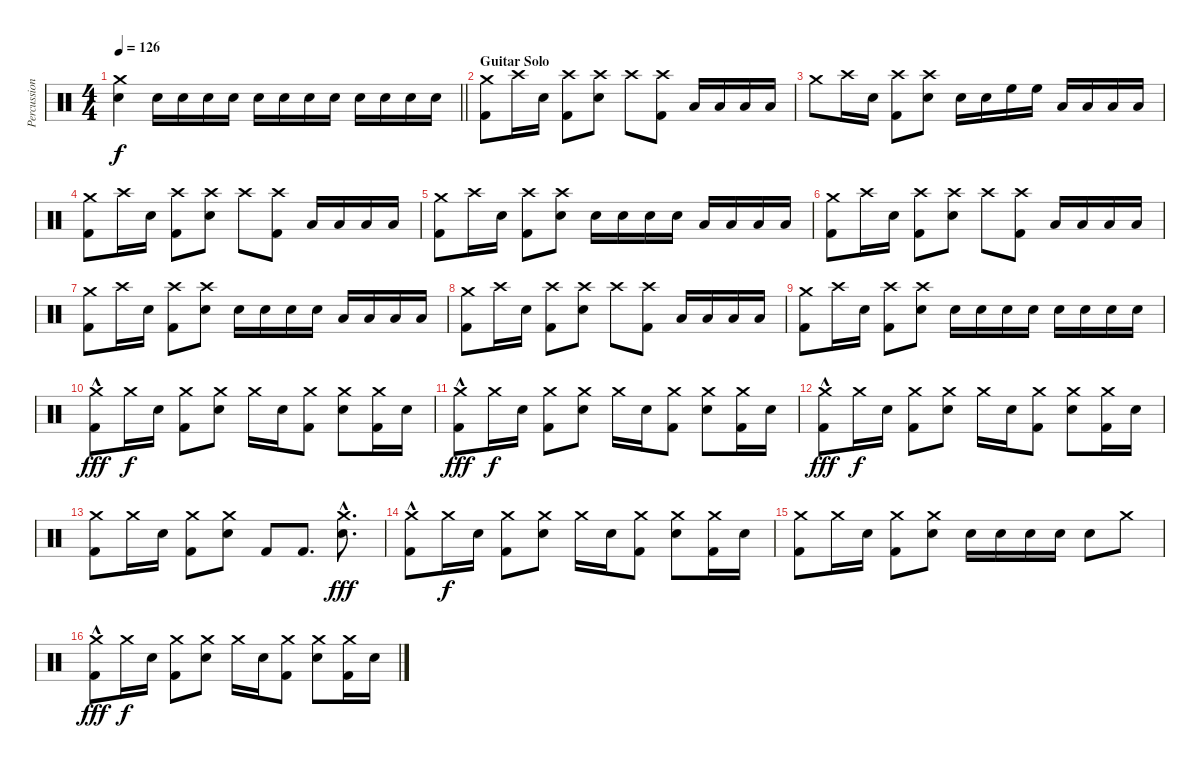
\track ("Percussion" "Percussion") {instrument percussion}
\staff {score}
\articulation defaults
\ts (4 4)
\tempo 126
\clef neutral
\barLineRight lightlight
\ks c
("Crash medium (hit)" "Snare (hit) 2").4{dy f} "Snare (hit) 2".16 "Snare (hit) 2".16 "Snare (hit) 2".16 "Snare (hit) 2".16 "Snare (hit) 2".16 "Snare (hit) 2".16 "Snare (hit) 2".16 "Snare (hit) 2".16 "Snare (hit) 2".16 "Snare (hit) 2".16 "Snare (hit) 2".16 "Snare (hit) 2".16 |
\section ("" "Guitar Solo")
("Crash medium (hit)" "Kick (hit) 2").8 "Crash high (hit)".16 "Snare (hit) 2".16 ("Crash high (hit)" "Kick (hit) 2").8 ("Crash high (hit)" "Snare (hit) 2").8 "Crash high (hit)".8 ("Crash high (hit)" "Kick (hit) 2").8 "Low Tom (hit)".16 "Low Tom (hit)".16 "Low Floor Tom (hit)".16 "Low Floor Tom (hit)".16 |
"Crash medium (hit)".8 "Crash high (hit)".16 "Snare (hit) 2".16 ("Crash high (hit)" "Kick (hit) 2").8 ("Crash high (hit)" "Snare (hit) 2").8 "Snare (hit) 2".16 "Snare (hit) 2".16 "High Floor Tom (hit)".16 "High Floor Tom (hit)".16 "Low Tom (hit)".16 "Low Tom (hit)".16 "Low Floor Tom (hit)".16 "Low Floor Tom (hit)".16 |
("Crash medium (hit)" "Kick (hit) 2").8 "Crash high (hit)".16 "Snare (hit) 2".16 ("Crash high (hit)" "Kick (hit) 2").8 ("Crash high (hit)" "Snare (hit) 2").8 "Crash high (hit)".8 ("Crash high (hit)" "Kick (hit) 2").8 "Low Tom (hit)".16 "Low Tom (hit)".16 "Low Floor Tom (hit)".16 "Low Floor Tom (hit)".16 |
("Crash medium (hit)" "Kick (hit) 2").8 "Crash high (hit)".16 "Snare (hit) 2".16 ("Crash high (hit)" "Kick (hit) 2").8 ("Crash high (hit)" "Snare (hit) 2").8 "Snare (hit) 2".16 "Snare (hit) 2".16 "Snare (hit) 2".16 "Snare (hit) 2".16 "Low Tom (hit)".16 "Low Tom (hit)".16 "Low Floor Tom (hit)".16 "Low Floor Tom (hit)".16 |
("Crash medium (hit)" "Kick (hit) 2").8 "Crash high (hit)".16 "Snare (hit) 2".16 ("Crash high (hit)" "Kick (hit) 2").8 ("Crash high (hit)" "Snare (hit) 2").8 "Crash high (hit)".8 ("Crash high (hit)" "Kick (hit) 2").8 "Low Tom (hit)".16 "Low Tom (hit)".16 "Low Floor Tom (hit)".16 "Low Floor Tom (hit)".16 |
("Crash medium (hit)" "Kick (hit) 2").8 "Crash high (hit)".16 "Snare (hit) 2".16 ("Crash high (hit)" "Kick (hit) 2").8 ("Crash high (hit)" "Snare (hit) 2").8 "Snare (hit) 2".16 "Snare (hit) 2".16 "Snare (hit) 2".16 "Snare (hit) 2".16 "Low Tom (hit)".16 "Low Tom (hit)".16 "Low Floor Tom (hit)".16 "Low Floor Tom (hit)".16 |
("Crash medium (hit)" "Kick (hit) 2").8 "Crash high (hit)".16 "Snare (hit) 2".16 ("Crash high (hit)" "Kick (hit) 2").8 ("Crash high (hit)" "Snare (hit) 2").8 "Crash high (hit)".8 ("Crash high (hit)" "Kick (hit) 2").8 "Low Tom (hit)".16 "Low Tom (hit)".16 "Low Floor Tom (hit)".16 "Low Floor Tom (hit)".16 |
("Crash medium (hit)" "Kick (hit) 2").8 "Crash high (hit)".16 "Snare (hit) 2".16 ("Crash high (hit)" "Kick (hit) 2").8 ("Crash high (hit)" "Snare (hit) 2").8 "Snare (hit) 2".16 "Snare (hit) 2".16 "Snare (hit) 2".16 "Snare (hit) 2".16 "Snare (hit) 2".16 "Snare (hit) 2".16 "Snare (hit) 2".16 "Snare (hit) 2".16 |
("Crash medium (hit)"{hac} "Kick (hit) 2").8{dy fff} "Crash medium (hit)".16{dy f} "Snare (hit) 2".16 ("Crash medium (hit)" "Kick (hit) 2").8 ("Crash medium (hit)" "Snare (hit) 2").8 "Crash medium (hit)".16 "Snare (hit) 2".16 ("Crash medium (hit)" "Kick (hit) 2").8 ("Crash medium (hit)" "Snare (hit) 2").8 ("Crash medium (hit)" "Kick (hit) 2").16 "Snare (hit) 2".16 |
("Crash medium (hit)"{hac} "Kick (hit) 2").8{dy fff} "Crash medium (hit)".16{dy f} "Snare (hit) 2".16 ("Crash medium (hit)" "Kick (hit) 2").8 ("Crash medium (hit)" "Snare (hit) 2").8 "Crash medium (hit)".16 "Snare (hit) 2".16 ("Crash medium (hit)" "Kick (hit) 2").8 ("Crash medium (hit)" "Snare (hit) 2").8 ("Crash medium (hit)" "Kick (hit) 2").16 "Snare (hit) 2".16 |
("Crash medium (hit)"{hac} "Kick (hit) 2").8{dy fff} "Crash medium (hit)".16{dy f} "Snare (hit) 2".16 ("Crash medium (hit)" "Kick (hit) 2").8 ("Crash medium (hit)" "Snare (hit) 2").8 "Crash medium (hit)".16 "Snare (hit) 2".16 ("Crash medium (hit)" "Kick (hit) 2").8 ("Crash medium (hit)" "Snare (hit) 2").8 ("Crash medium (hit)" "Kick (hit) 2").16 "Snare (hit) 2".16 |
("Crash medium (hit)" "Kick (hit) 2").8 "Crash medium (hit)".16 "Snare (hit) 2".16 ("Crash medium (hit)" "Kick (hit) 2").8 ("Crash medium (hit)" "Snare (hit) 2").8 "Kick (hit) 2".8 "Kick (hit) 2".8{d} ("Crash medium (hit)"{hac} "Snare (hit) 2").8{d dy fff} |
("Crash medium (hit)"{hac} "Kick (hit) 2").8 "Crash medium (hit)".16{dy f} "Snare (hit) 2".16 ("Crash medium (hit)" "Kick (hit) 2").8 ("Crash medium (hit)" "Snare (hit) 2").8 "Crash medium (hit)".16 "Snare (hit) 2".16 ("Crash medium (hit)" "Kick (hit) 2").8 ("Crash medium (hit)" "Snare (hit) 2").8 ("Crash medium (hit)" "Kick (hit) 2").16 "Snare (hit) 2".16 |
("Crash medium (hit)" "Kick (hit) 2").8 "Crash medium (hit)".16 "Snare (hit) 2".16 ("Crash medium (hit)" "Kick (hit) 2").8 ("Crash medium (hit)" "Snare (hit) 2").8 "Snare (hit) 2".16 "Snare (hit) 2".16 "Snare (hit) 2".16 "Snare (hit) 2".16 "Snare (hit) 2".8 "Crash medium (hit)".8 |
("Crash medium (hit)"{hac} "Kick (hit) 2").8{dy fff} "Crash medium (hit)".16{dy f} "Snare (hit) 2".16 ("Crash medium (hit)" "Kick (hit) 2").8 ("Crash medium (hit)" "Snare (hit) 2").8 "Crash medium (hit)".16 "Snare (hit) 2".16 ("Crash medium (hit)" "Kick (hit) 2").8 ("Crash medium (hit)" "Snare (hit) 2").8 ("Crash medium (hit)" "Kick (hit) 2").16 "Snare (hit) 2".16
